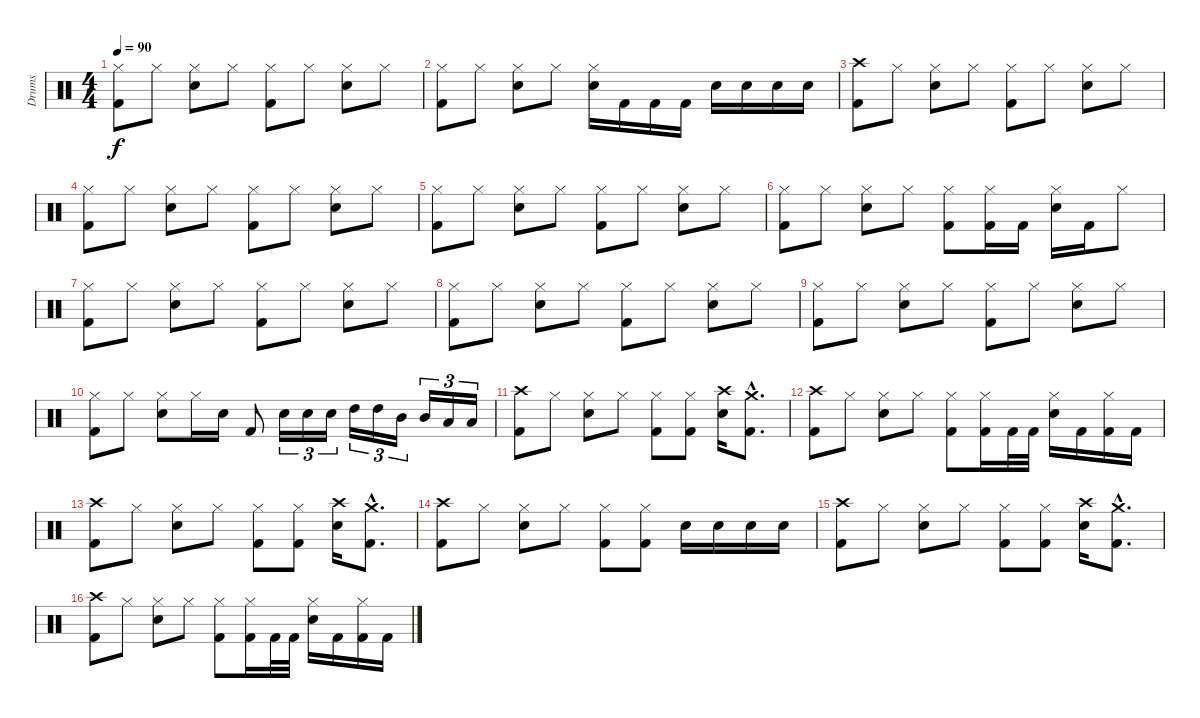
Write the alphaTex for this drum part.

\track ("Drums" "Drums") {instrument percussion}
\staff {score}
\articulation defaults
\ts (4 4)
\tempo 90
\clef neutral
\ks c
("Hi-Hat (closed)" "Kick (hit) 2").8{dy f} "Hi-Hat (closed)".8 ("Hi-Hat (closed)" "Snare (hit) 2").8 "Hi-Hat (closed)".8 ("Hi-Hat (closed)" "Kick (hit) 2").8 "Hi-Hat (closed)".8 ("Hi-Hat (closed)" "Snare (hit) 2").8 "Hi-Hat (closed)".8 |
("Hi-Hat (closed)" "Kick (hit) 2").8 "Hi-Hat (closed)".8 ("Hi-Hat (closed)" "Snare (hit) 2").8 "Hi-Hat (closed)".8 ("Hi-Hat (closed)" "Snare (hit) 2").16 "Kick (hit) 2".16 "Kick (hit) 2".16 "Kick (hit) 2".16 "Snare (hit) 2".16 "Snare (hit) 2".16 "Snare (hit) 2".16 "Snare (hit) 2".16 |
("Crash high (hit)" "Kick (hit) 2").8 "Hi-Hat (closed)".8 ("Hi-Hat (closed)" "Snare (hit) 2").8 "Hi-Hat (closed)".8 ("Hi-Hat (closed)" "Kick (hit) 2").8 "Hi-Hat (closed)".8 ("Hi-Hat (closed)" "Snare (hit) 2").8 "Hi-Hat (closed)".8 |
("Hi-Hat (closed)" "Kick (hit) 2").8 "Hi-Hat (closed)".8 ("Hi-Hat (closed)" "Snare (hit) 2").8 "Hi-Hat (closed)".8 ("Hi-Hat (closed)" "Kick (hit) 2").8 "Hi-Hat (closed)".8 ("Hi-Hat (closed)" "Snare (hit) 2").8 "Hi-Hat (closed)".8 |
("Hi-Hat (closed)" "Kick (hit) 2").8 "Hi-Hat (closed)".8 ("Hi-Hat (closed)" "Snare (hit) 2").8 "Hi-Hat (closed)".8 ("Hi-Hat (closed)" "Kick (hit) 2").8 "Hi-Hat (closed)".8 ("Hi-Hat (closed)" "Snare (hit) 2").8 "Hi-Hat (closed)".8 |
("Hi-Hat (closed)" "Kick (hit) 2").8 "Hi-Hat (closed)".8 ("Hi-Hat (closed)" "Snare (hit) 2").8 "Hi-Hat (closed)".8 ("Hi-Hat (closed)" "Kick (hit) 2").8 ("Hi-Hat (closed)" "Kick (hit) 2").16 "Kick (hit) 2".16 ("Hi-Hat (closed)" "Snare (hit) 2").16 "Kick (hit) 2".16 "Hi-Hat (closed)".8 |
("Hi-Hat (closed)" "Kick (hit) 2").8 "Hi-Hat (closed)".8 ("Hi-Hat (closed)" "Snare (hit) 2").8 "Hi-Hat (closed)".8 ("Hi-Hat (closed)" "Kick (hit) 2").8 "Hi-Hat (closed)".8 ("Hi-Hat (closed)" "Snare (hit) 2").8 "Hi-Hat (closed)".8 |
("Hi-Hat (closed)" "Kick (hit) 2").8 "Hi-Hat (closed)".8 ("Hi-Hat (closed)" "Snare (hit) 2").8 "Hi-Hat (closed)".8 ("Hi-Hat (closed)" "Kick (hit) 2").8 "Hi-Hat (closed)".8 ("Hi-Hat (closed)" "Snare (hit) 2").8 "Hi-Hat (closed)".8 |
("Hi-Hat (closed)" "Kick (hit) 2").8 "Hi-Hat (closed)".8 ("Hi-Hat (closed)" "Snare (hit) 2").8 "Hi-Hat (closed)".8 ("Hi-Hat (closed)" "Kick (hit) 2").8 "Hi-Hat (closed)".8 ("Hi-Hat (closed)" "Snare (hit) 2").8 "Hi-Hat (closed)".8 |
("Hi-Hat (closed)" "Kick (hit) 2").8 "Hi-Hat (closed)".8 ("Hi-Hat (closed)" "Snare (hit) 2").8 "Hi-Hat (closed)".16 "Snare (hit) 2".16 "Kick (hit) 2".8 "Snare (hit) 2".16{tu (3 2)} "Snare (hit) 2".16{tu (3 2)} "Snare (hit) 2".16{tu (3 2)} "High Tom (hit)".16{tu (3 2)} "High Tom (hit)".16{tu (3 2)} "Mid Tom (hit)".16{tu (3 2)} "Mid Tom (hit)".16{tu (3 2)} "Low Tom (hit)".16{tu (3 2)} "Low Tom (hit)".16{tu (3 2)} |
("Crash high (hit)" "Kick (hit) 2").8 "Hi-Hat (closed)".8 ("Hi-Hat (closed)" "Snare (hit) 2").8 "Hi-Hat (closed)".8 ("Hi-Hat (closed)" "Kick (hit) 2").8 ("Hi-Hat (closed)" "Kick (hit) 2").8 ("Crash high (hit)" "Snare (hit) 2").16 ("Crash medium (hit)"{hac} "Kick (hit) 2"{hac}).8{d} |
("Crash high (hit)" "Kick (hit) 2").8 "Hi-Hat (closed)".8 ("Hi-Hat (closed)" "Snare (hit) 2").8 "Hi-Hat (closed)".8 ("Hi-Hat (closed)" "Kick (hit) 2").8 ("Hi-Hat (closed)" "Kick (hit) 2").16 "Kick (hit) 2".32 "Kick (hit) 2".32 ("Hi-Hat (closed)" "Snare (hit) 2").16 "Kick (hit) 2".16 ("Hi-Hat (closed)" "Kick (hit) 2").16 "Kick (hit) 2".16 |
("Crash high (hit)" "Kick (hit) 2").8 "Hi-Hat (closed)".8 ("Hi-Hat (closed)" "Snare (hit) 2").8 "Hi-Hat (closed)".8 ("Hi-Hat (closed)" "Kick (hit) 2").8 ("Hi-Hat (closed)" "Kick (hit) 2").8 ("Crash high (hit)" "Snare (hit) 2").16 ("Crash medium (hit)"{hac} "Kick (hit) 2"{hac}).8{d} |
("Crash high (hit)" "Kick (hit) 2").8 "Hi-Hat (closed)".8 ("Hi-Hat (closed)" "Snare (hit) 2").8 "Hi-Hat (closed)".8 ("Hi-Hat (closed)" "Kick (hit) 2").8 ("Hi-Hat (closed)" "Kick (hit) 2").8 "Snare (hit) 2".16 "Snare (hit) 2".16 "Snare (hit) 2".16 "Snare (hit) 2".16 |
("Crash high (hit)" "Kick (hit) 2").8 "Hi-Hat (closed)".8 ("Hi-Hat (closed)" "Snare (hit) 2").8 "Hi-Hat (closed)".8 ("Hi-Hat (closed)" "Kick (hit) 2").8 ("Hi-Hat (closed)" "Kick (hit) 2").8 ("Crash high (hit)" "Snare (hit) 2").16 ("Crash medium (hit)"{hac} "Kick (hit) 2"{hac}).8{d} |
("Crash high (hit)" "Kick (hit) 2").8 "Hi-Hat (closed)".8 ("Hi-Hat (closed)" "Snare (hit) 2").8 "Hi-Hat (closed)".8 ("Hi-Hat (closed)" "Kick (hit) 2").8 ("Hi-Hat (closed)" "Kick (hit) 2").16 "Kick (hit) 2".32 "Kick (hit) 2".32 ("Hi-Hat (closed)" "Snare (hit) 2").16 "Kick (hit) 2".16 ("Hi-Hat (closed)" "Kick (hit) 2").16 "Kick (hit) 2".16
